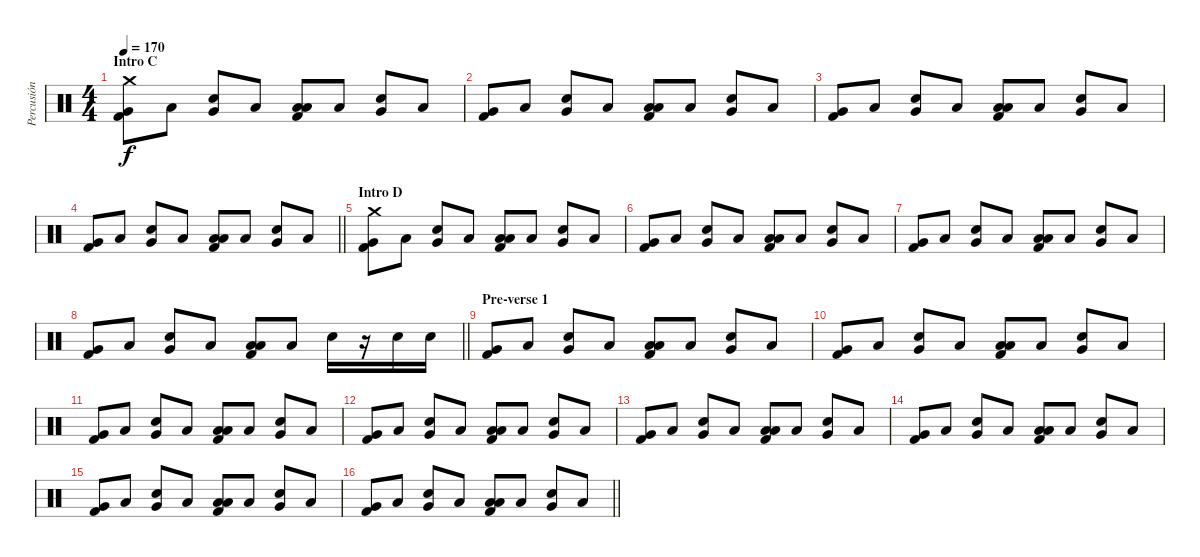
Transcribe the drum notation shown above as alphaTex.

\track ("Percusión" "Percusión") {instrument percussion}
\staff {score}
\articulation defaults
\ts (4 4)
\section ("" "Intro C")
\tempo 170
\clef neutral
\ks c
("Crash medium (hit)" "Very Low Tom (hit)" "Kick (hit) 2").8{dy f} "Low Tom (hit)".8 ("Snare (hit) 2" "Very Low Tom (hit)").8 "Low Tom (hit)".8 ("Low Tom (hit)" "Low Floor Tom (hit)" "Kick (hit) 2").8 "Low Tom (hit)".8 ("Snare (hit) 2" "Very Low Tom (hit)").8 "Low Tom (hit)".8 |
("Very Low Tom (hit)" "Kick (hit) 2").8 "Low Tom (hit)".8 ("Snare (hit) 2" "Very Low Tom (hit)").8 "Low Tom (hit)".8 ("Low Tom (hit)" "Low Floor Tom (hit)" "Kick (hit) 2").8 "Low Tom (hit)".8 ("Snare (hit) 2" "Very Low Tom (hit)").8 "Low Tom (hit)".8 |
("Very Low Tom (hit)" "Kick (hit) 2").8 "Low Tom (hit)".8 ("Snare (hit) 2" "Very Low Tom (hit)").8 "Low Tom (hit)".8 ("Low Tom (hit)" "Low Floor Tom (hit)" "Kick (hit) 2").8 "Low Tom (hit)".8 ("Snare (hit) 2" "Very Low Tom (hit)").8 "Low Tom (hit)".8 |
\barLineRight lightlight
("Very Low Tom (hit)" "Kick (hit) 2").8 "Low Tom (hit)".8 ("Snare (hit) 2" "Very Low Tom (hit)").8 "Low Tom (hit)".8 ("Low Tom (hit)" "Low Floor Tom (hit)" "Kick (hit) 2").8 "Low Tom (hit)".8 ("Snare (hit) 2" "Very Low Tom (hit)").8 "Low Tom (hit)".8 |
\section ("" "Intro D")
("Crash medium (hit)" "Very Low Tom (hit)" "Kick (hit) 2").8 "Low Tom (hit)".8 ("Snare (hit) 2" "Very Low Tom (hit)").8 "Low Tom (hit)".8 ("Low Tom (hit)" "Low Floor Tom (hit)" "Kick (hit) 2").8 "Low Tom (hit)".8 ("Snare (hit) 2" "Very Low Tom (hit)").8 "Low Tom (hit)".8 |
("Very Low Tom (hit)" "Kick (hit) 2").8 "Low Tom (hit)".8 ("Snare (hit) 2" "Very Low Tom (hit)").8 "Low Tom (hit)".8 ("Low Tom (hit)" "Low Floor Tom (hit)" "Kick (hit) 2").8 "Low Tom (hit)".8 ("Snare (hit) 2" "Very Low Tom (hit)").8 "Low Tom (hit)".8 |
("Very Low Tom (hit)" "Kick (hit) 2").8 "Low Tom (hit)".8 ("Snare (hit) 2" "Very Low Tom (hit)").8 "Low Tom (hit)".8 ("Low Tom (hit)" "Low Floor Tom (hit)" "Kick (hit) 2").8 "Low Tom (hit)".8 ("Snare (hit) 2" "Very Low Tom (hit)").8 "Low Tom (hit)".8 |
\barLineRight lightlight
("Very Low Tom (hit)" "Kick (hit) 2").8 "Low Tom (hit)".8 ("Snare (hit) 2" "Very Low Tom (hit)").8 "Low Tom (hit)".8 ("Low Tom (hit)" "Low Floor Tom (hit)" "Kick (hit) 2").8 "Low Tom (hit)".8 "Electric Snare (hit)".16 r.16 "Electric Snare (hit)".16 "Electric Snare (hit)".16 |
\section ("" "Pre-verse 1")
("Very Low Tom (hit)" "Kick (hit) 2").8 "Low Tom (hit)".8 ("Snare (hit) 2" "Very Low Tom (hit)").8 "Low Tom (hit)".8 ("Low Tom (hit)" "Low Floor Tom (hit)" "Kick (hit) 2").8 "Low Tom (hit)".8 ("Snare (hit) 2" "Very Low Tom (hit)").8 "Low Tom (hit)".8 |
("Very Low Tom (hit)" "Kick (hit) 2").8 "Low Tom (hit)".8 ("Snare (hit) 2" "Very Low Tom (hit)").8 "Low Tom (hit)".8 ("Low Tom (hit)" "Low Floor Tom (hit)" "Kick (hit) 2").8 "Low Tom (hit)".8 ("Snare (hit) 2" "Very Low Tom (hit)").8 "Low Tom (hit)".8 |
("Very Low Tom (hit)" "Kick (hit) 2").8 "Low Tom (hit)".8 ("Snare (hit) 2" "Very Low Tom (hit)").8 "Low Tom (hit)".8 ("Low Tom (hit)" "Low Floor Tom (hit)" "Kick (hit) 2").8 "Low Tom (hit)".8 ("Snare (hit) 2" "Very Low Tom (hit)").8 "Low Tom (hit)".8 |
("Very Low Tom (hit)" "Kick (hit) 2").8 "Low Tom (hit)".8 ("Snare (hit) 2" "Very Low Tom (hit)").8 "Low Tom (hit)".8 ("Low Tom (hit)" "Low Floor Tom (hit)" "Kick (hit) 2").8 "Low Tom (hit)".8 ("Snare (hit) 2" "Very Low Tom (hit)").8 "Low Tom (hit)".8 |
("Very Low Tom (hit)" "Kick (hit) 2").8 "Low Tom (hit)".8 ("Snare (hit) 2" "Very Low Tom (hit)").8 "Low Tom (hit)".8 ("Low Tom (hit)" "Low Floor Tom (hit)" "Kick (hit) 2").8 "Low Tom (hit)".8 ("Snare (hit) 2" "Very Low Tom (hit)").8 "Low Tom (hit)".8 |
("Very Low Tom (hit)" "Kick (hit) 2").8 "Low Tom (hit)".8 ("Snare (hit) 2" "Very Low Tom (hit)").8 "Low Tom (hit)".8 ("Low Tom (hit)" "Low Floor Tom (hit)" "Kick (hit) 2").8 "Low Tom (hit)".8 ("Snare (hit) 2" "Very Low Tom (hit)").8 "Low Tom (hit)".8 |
("Very Low Tom (hit)" "Kick (hit) 2").8 "Low Tom (hit)".8 ("Snare (hit) 2" "Very Low Tom (hit)").8 "Low Tom (hit)".8 ("Low Tom (hit)" "Low Floor Tom (hit)" "Kick (hit) 2").8 "Low Tom (hit)".8 ("Snare (hit) 2" "Very Low Tom (hit)").8 "Low Tom (hit)".8 |
\barLineRight lightlight
("Very Low Tom (hit)" "Kick (hit) 2").8 "Low Tom (hit)".8 ("Snare (hit) 2" "Very Low Tom (hit)").8 "Low Tom (hit)".8 ("Low Tom (hit)" "Low Floor Tom (hit)" "Kick (hit) 2").8 "Low Tom (hit)".8 ("Snare (hit) 2" "Very Low Tom (hit)").8 "Low Tom (hit)".8
